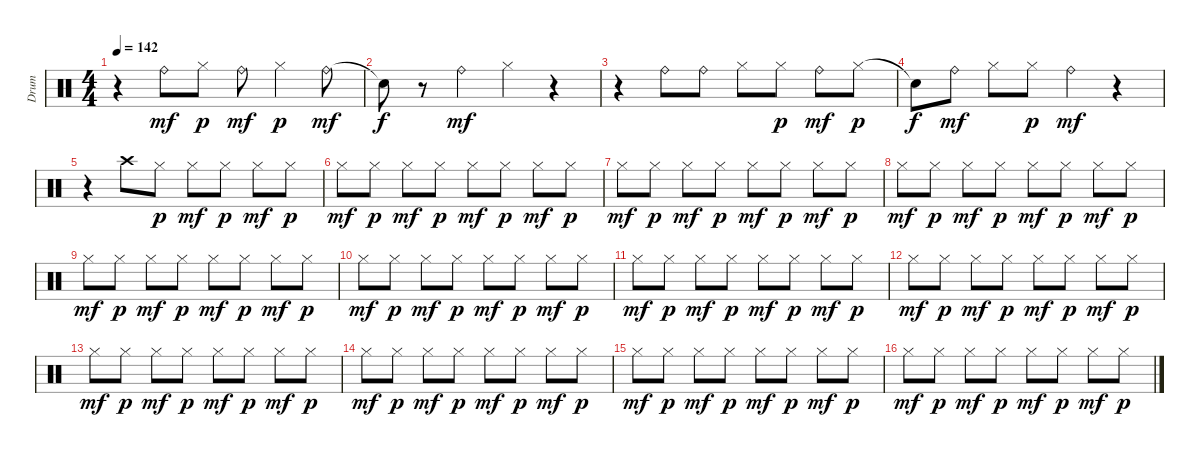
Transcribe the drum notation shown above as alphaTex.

\track ("Drum" "Drum") {instrument percussion}
\staff {score}
\articulation defaults
\ts (4 4)
\tempo 142
\clef neutral
\ks c
r.4{dy pp} "Ride (bell)".8{dy mf} "Hi-Hat (closed)".8{dy p} "Ride (bell)".8{dy mf} "Hi-Hat (closed)".4{dy p} "Ride (bell)".8{dy mf} |
"Snare (hit)"{t}.8{dy f} r.8 "Ride (bell)".4{dy mf} "Hi-Hat (closed)".4 r.4 |
r.4 "Ride (bell)".8 "Ride (bell)".8 "Hi-Hat (closed)".8 "Hi-Hat (closed)".8{dy p} "Ride (bell)".8{dy mf} "Hi-Hat (closed)".8{dy p} |
"Snare (hit)"{t}.8{dy f} "Ride (bell)".8{dy mf} "Hi-Hat (closed)".8 "Hi-Hat (closed)".8{dy p} "Ride (bell)".4{dy mf} r.4 |
r.4 "Crash high (hit)".8 "Hi-Hat (closed)".8{dy p} "Hi-Hat (closed)".8{dy mf} "Hi-Hat (closed)".8{dy p} "Hi-Hat (closed)".8{dy mf} "Hi-Hat (closed)".8{dy p} |
"Hi-Hat (closed)".8{dy mf} "Hi-Hat (closed)".8{dy p} "Hi-Hat (closed)".8{dy mf} "Hi-Hat (closed)".8{dy p} "Hi-Hat (closed)".8{dy mf} "Hi-Hat (closed)".8{dy p} "Hi-Hat (closed)".8{dy mf} "Hi-Hat (closed)".8{dy p} |
"Hi-Hat (closed)".8{dy mf} "Hi-Hat (closed)".8{dy p} "Hi-Hat (closed)".8{dy mf} "Hi-Hat (closed)".8{dy p} "Hi-Hat (closed)".8{dy mf} "Hi-Hat (closed)".8{dy p} "Hi-Hat (closed)".8{dy mf} "Hi-Hat (closed)".8{dy p} |
"Hi-Hat (closed)".8{dy mf} "Hi-Hat (closed)".8{dy p} "Hi-Hat (closed)".8{dy mf} "Hi-Hat (closed)".8{dy p} "Hi-Hat (closed)".8{dy mf} "Hi-Hat (closed)".8{dy p} "Hi-Hat (closed)".8{dy mf} "Hi-Hat (closed)".8{dy p} |
"Hi-Hat (closed)".8{dy mf} "Hi-Hat (closed)".8{dy p} "Hi-Hat (closed)".8{dy mf} "Hi-Hat (closed)".8{dy p} "Hi-Hat (closed)".8{dy mf} "Hi-Hat (closed)".8{dy p} "Hi-Hat (closed)".8{dy mf} "Hi-Hat (closed)".8{dy p} |
"Hi-Hat (closed)".8{dy mf} "Hi-Hat (closed)".8{dy p} "Hi-Hat (closed)".8{dy mf} "Hi-Hat (closed)".8{dy p} "Hi-Hat (closed)".8{dy mf} "Hi-Hat (closed)".8{dy p} "Hi-Hat (closed)".8{dy mf} "Hi-Hat (closed)".8{dy p} |
"Hi-Hat (closed)".8{dy mf} "Hi-Hat (closed)".8{dy p} "Hi-Hat (closed)".8{dy mf} "Hi-Hat (closed)".8{dy p} "Hi-Hat (closed)".8{dy mf} "Hi-Hat (closed)".8{dy p} "Hi-Hat (closed)".8{dy mf} "Hi-Hat (closed)".8{dy p} |
"Hi-Hat (closed)".8{dy mf} "Hi-Hat (closed)".8{dy p} "Hi-Hat (closed)".8{dy mf} "Hi-Hat (closed)".8{dy p} "Hi-Hat (closed)".8{dy mf} "Hi-Hat (closed)".8{dy p} "Hi-Hat (closed)".8{dy mf} "Hi-Hat (closed)".8{dy p} |
"Hi-Hat (closed)".8{dy mf} "Hi-Hat (closed)".8{dy p} "Hi-Hat (closed)".8{dy mf} "Hi-Hat (closed)".8{dy p} "Hi-Hat (closed)".8{dy mf} "Hi-Hat (closed)".8{dy p} "Hi-Hat (closed)".8{dy mf} "Hi-Hat (closed)".8{dy p} |
"Hi-Hat (closed)".8{dy mf} "Hi-Hat (closed)".8{dy p} "Hi-Hat (closed)".8{dy mf} "Hi-Hat (closed)".8{dy p} "Hi-Hat (closed)".8{dy mf} "Hi-Hat (closed)".8{dy p} "Hi-Hat (closed)".8{dy mf} "Hi-Hat (closed)".8{dy p} |
"Hi-Hat (closed)".8{dy mf} "Hi-Hat (closed)".8{dy p} "Hi-Hat (closed)".8{dy mf} "Hi-Hat (closed)".8{dy p} "Hi-Hat (closed)".8{dy mf} "Hi-Hat (closed)".8{dy p} "Hi-Hat (closed)".8{dy mf} "Hi-Hat (closed)".8{dy p} |
"Hi-Hat (closed)".8{dy mf} "Hi-Hat (closed)".8{dy p} "Hi-Hat (closed)".8{dy mf} "Hi-Hat (closed)".8{dy p} "Hi-Hat (closed)".8{dy mf} "Hi-Hat (closed)".8{dy p} "Hi-Hat (closed)".8{dy mf} "Hi-Hat (closed)".8{dy p}
